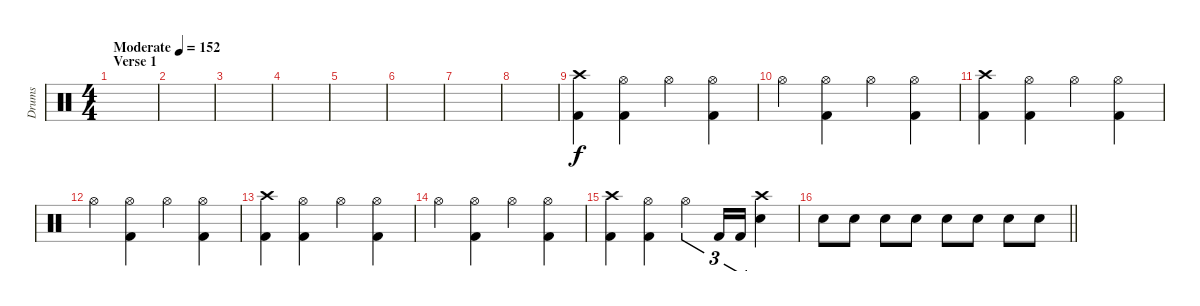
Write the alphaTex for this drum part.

\track ("Drums" "Drums") {instrument percussion}
\staff {score}
\articulation defaults
\ts (4 4)
\section ("" "Verse 1")
\tempo (152 "Moderate")
\clef neutral
\ks c
|
|
|
|
|
|
|
|
("Crash high (hit)" "Kick (hit) 2").4 ("Hi-Hat (open)" "Kick (hit) 2").4 "Hi-Hat (open)".4 ("Hi-Hat (open)" "Kick (hit) 2").4 |
"Hi-Hat (open)".4 ("Hi-Hat (open)" "Kick (hit) 2").4 "Hi-Hat (open)".4 ("Hi-Hat (open)" "Kick (hit) 2").4 |
("Crash high (hit)" "Kick (hit) 2").4 ("Hi-Hat (open)" "Kick (hit) 2").4 "Hi-Hat (open)".4 ("Hi-Hat (open)" "Kick (hit) 2").4 |
"Hi-Hat (open)".4 ("Hi-Hat (open)" "Kick (hit) 2").4 "Hi-Hat (open)".4 ("Hi-Hat (open)" "Kick (hit) 2").4 |
("Crash high (hit)" "Kick (hit) 2").4 ("Hi-Hat (open)" "Kick (hit) 2").4 "Hi-Hat (open)".4 ("Hi-Hat (open)" "Kick (hit) 2").4 |
"Hi-Hat (open)".4 ("Hi-Hat (open)" "Kick (hit) 2").4 "Hi-Hat (open)".4 ("Hi-Hat (open)" "Kick (hit) 2").4 |
("Crash high (hit)" "Kick (hit) 2").4 ("Hi-Hat (open)" "Kick (hit) 2").4 "Hi-Hat (open)".4{tu (3 2)} "Kick (hit) 2".16{tu (3 2)} "Kick (hit) 2".16{tu (3 2)} ("Crash high (hit)" "Snare (hit) 2").4 |
\barLineRight lightlight "Snare (hit) 2".8 "Snare (hit) 2".8 "Snare (hit) 2".8 "Snare (hit) 2".8 "Snare (hit) 2".8 "Snare (hit) 2".8 "Snare (hit) 2".8 "Snare (hit) 2".8
